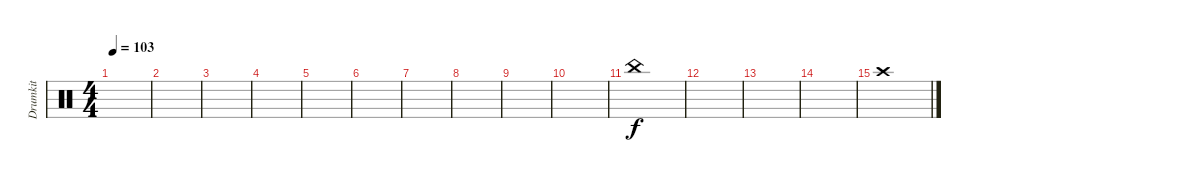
\track ("Drumkit" "Drumkit") {instrument percussion}
\staff {score}
\articulation defaults
\ts (4 4)
\tempo 103
\clef neutral
\ks c
|
|
|
|
|
|
|
|
|
|
"China (hit)".1 |
|
|
|
"Crash high (hit)".1
